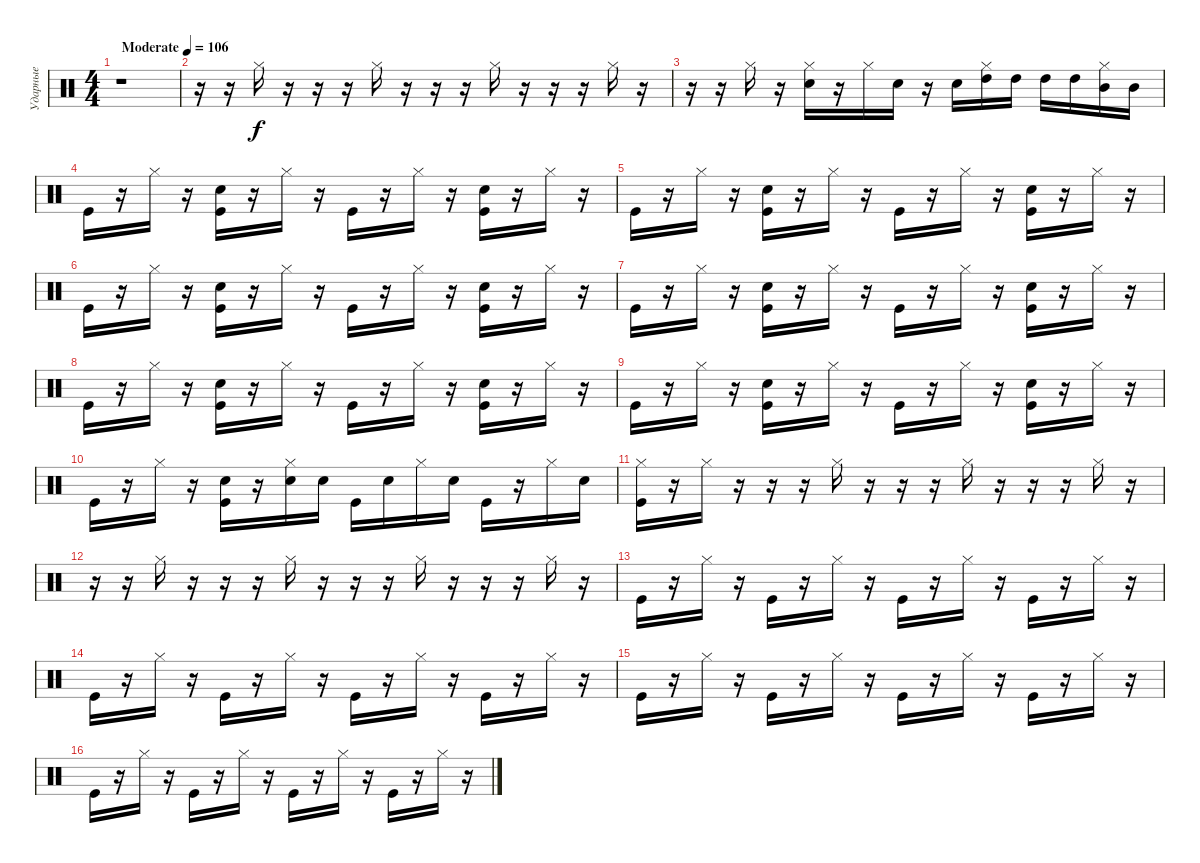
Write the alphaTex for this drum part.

\track ("Ударные" "Ударные") {instrument percussion}
\staff {score}
\articulation defaults
\ts (4 4)
\tempo (106 "Moderate")
\clef neutral
\ks c
r.1{dy f} |
r.16 r.16 "Hi-Hat (closed)".16 r.16 r.16 r.16 "Hi-Hat (closed)".16 r.16 r.16 r.16 "Hi-Hat (closed)".16 r.16 r.16 r.16 "Hi-Hat (closed)".16 r.16 |
r.16 r.16 "Hi-Hat (closed)".16 r.16 ("Hi-Hat (closed)" "Snare (hit) 2").16 r.16 "Hi-Hat (closed)".16 "Snare (hit) 2".16 r.16 "Snare (hit) 2".16 ("Hi-Hat (closed)" "High Tom (hit)").16 "High Tom (hit)".16 "High Tom (hit)".16 "High Tom (hit)".16 ("Hi-Hat (closed)" "Mid Tom (hit)").16 "Mid Tom (hit)".16 |
"Kick (hit)".16 r.16 "Hi-Hat (closed)".16 r.16 ("Snare (hit) 2" "Kick (hit)").16 r.16 "Hi-Hat (closed)".16 r.16 "Kick (hit)".16 r.16 "Hi-Hat (closed)".16 r.16 ("Snare (hit) 2" "Kick (hit)").16 r.16 "Hi-Hat (closed)".16 r.16 |
"Kick (hit)".16 r.16 "Hi-Hat (closed)".16 r.16 ("Snare (hit) 2" "Kick (hit)").16 r.16 "Hi-Hat (closed)".16 r.16 "Kick (hit)".16 r.16 "Hi-Hat (closed)".16 r.16 ("Snare (hit) 2" "Kick (hit)").16 r.16 "Hi-Hat (closed)".16 r.16 |
"Kick (hit)".16 r.16 "Hi-Hat (closed)".16 r.16 ("Snare (hit) 2" "Kick (hit)").16 r.16 "Hi-Hat (closed)".16 r.16 "Kick (hit)".16 r.16 "Hi-Hat (closed)".16 r.16 ("Snare (hit) 2" "Kick (hit)").16 r.16 "Hi-Hat (closed)".16 r.16 |
"Kick (hit)".16 r.16 "Hi-Hat (closed)".16 r.16 ("Snare (hit) 2" "Kick (hit)").16 r.16 "Hi-Hat (closed)".16 r.16 "Kick (hit)".16 r.16 "Hi-Hat (closed)".16 r.16 ("Snare (hit) 2" "Kick (hit)").16 r.16 "Hi-Hat (closed)".16 r.16 |
"Kick (hit)".16 r.16 "Hi-Hat (closed)".16 r.16 ("Snare (hit) 2" "Kick (hit)").16 r.16 "Hi-Hat (closed)".16 r.16 "Kick (hit)".16 r.16 "Hi-Hat (closed)".16 r.16 ("Snare (hit) 2" "Kick (hit)").16 r.16 "Hi-Hat (closed)".16 r.16 |
"Kick (hit)".16 r.16 "Hi-Hat (closed)".16 r.16 ("Snare (hit) 2" "Kick (hit)").16 r.16 "Hi-Hat (closed)".16 r.16 "Kick (hit)".16 r.16 "Hi-Hat (closed)".16 r.16 ("Snare (hit) 2" "Kick (hit)").16 r.16 "Hi-Hat (closed)".16 r.16 |
"Kick (hit)".16 r.16 "Hi-Hat (closed)".16 r.16 ("Snare (hit) 2" "Kick (hit)").16 r.16 ("Hi-Hat (closed)" "Snare (hit) 2").16 "Snare (hit) 2".16 "Kick (hit)".16 "Snare (hit) 2".16 "Hi-Hat (closed)".16 "Snare (hit) 2".16 "Kick (hit)".16 r.16 "Hi-Hat (closed)".16 "Snare (hit) 2".16 |
("Kick (hit)" "Hi-Hat (closed)").16 r.16 "Hi-Hat (closed)".16 r.16 r.16 r.16 "Hi-Hat (closed)".16 r.16 r.16 r.16 "Hi-Hat (closed)".16 r.16 r.16 r.16 "Hi-Hat (closed)".16 r.16 |
r.16 r.16 "Hi-Hat (closed)".16 r.16 r.16 r.16 "Hi-Hat (closed)".16 r.16 r.16 r.16 "Hi-Hat (closed)".16 r.16 r.16 r.16 "Hi-Hat (closed)".16 r.16 |
"Kick (hit)".16 r.16 "Hi-Hat (closed)".16 r.16 "Kick (hit)".16 r.16 "Hi-Hat (closed)".16 r.16 "Kick (hit)".16 r.16 "Hi-Hat (closed)".16 r.16 "Kick (hit)".16 r.16 "Hi-Hat (closed)".16 r.16 |
"Kick (hit)".16 r.16 "Hi-Hat (closed)".16 r.16 "Kick (hit)".16 r.16 "Hi-Hat (closed)".16 r.16 "Kick (hit)".16 r.16 "Hi-Hat (closed)".16 r.16 "Kick (hit)".16 r.16 "Hi-Hat (closed)".16 r.16 |
"Kick (hit)".16 r.16 "Hi-Hat (closed)".16 r.16 "Kick (hit)".16 r.16 "Hi-Hat (closed)".16 r.16 "Kick (hit)".16 r.16 "Hi-Hat (closed)".16 r.16 "Kick (hit)".16 r.16 "Hi-Hat (closed)".16 r.16 |
"Kick (hit)".16 r.16 "Hi-Hat (closed)".16 r.16 "Kick (hit)".16 r.16 "Hi-Hat (closed)".16 r.16 "Kick (hit)".16 r.16 "Hi-Hat (closed)".16 r.16 "Kick (hit)".16 r.16 "Hi-Hat (closed)".16 r.16
